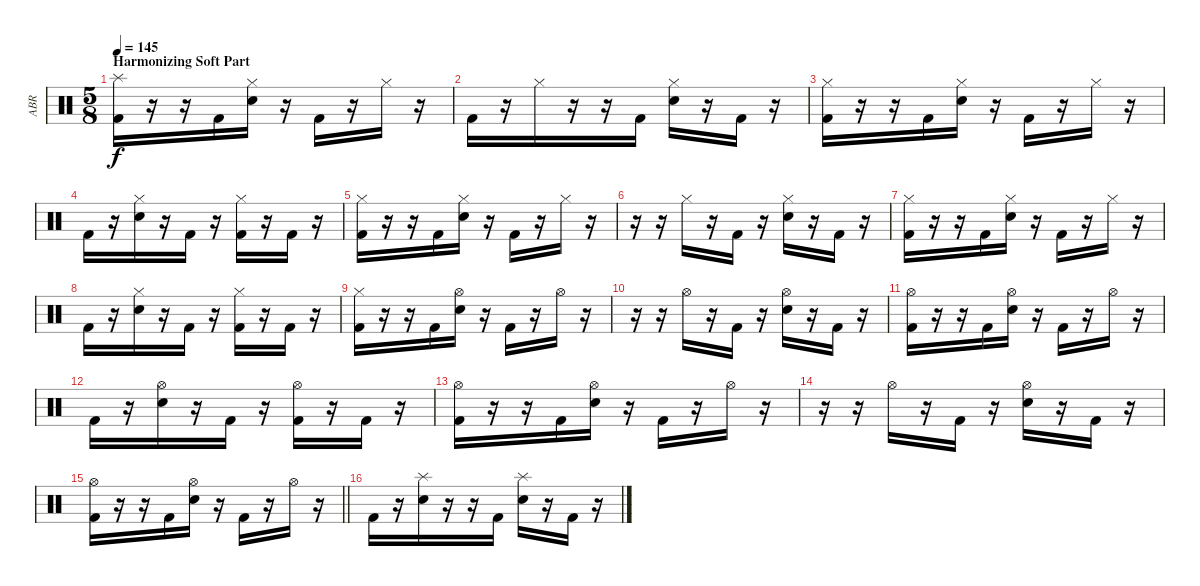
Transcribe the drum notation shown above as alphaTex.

\track ("ABR" "ABR") {instrument percussion}
\staff {score}
\articulation defaults
\ts (5 8)
\section ("" "Harmonizing Soft Part")
\tempo 145
\clef neutral
\ks c
("Splash (hit)" "Kick (hit) 2").16{dy f} r.16 r.16 "Kick (hit) 2".16 ("Hi-Hat (closed)" "Snare (hit) 2").16 r.16 "Kick (hit) 2".16 r.16 "Hi-Hat (closed)".16 r.16 |
"Kick (hit) 2".16 r.16 "Hi-Hat (closed)".16 r.16 r.16 "Kick (hit) 2".16 ("Hi-Hat (closed)" "Snare (hit) 2").16 r.16 "Kick (hit) 2".16 r.16 |
("Hi-Hat (closed)" "Kick (hit) 2").16 r.16 r.16 "Kick (hit) 2".16 ("Hi-Hat (closed)" "Snare (hit) 2").16 r.16 "Kick (hit) 2".16 r.16 "Hi-Hat (closed)".16 r.16 |
"Kick (hit) 2".16 r.16 ("Hi-Hat (closed)" "Snare (hit) 2").16 r.16 "Kick (hit) 2".16 r.16 ("Hi-Hat (closed)" "Kick (hit) 2").16 r.16 "Kick (hit) 2".16 r.16 |
("Hi-Hat (closed)" "Kick (hit) 2").16 r.16 r.16 "Kick (hit) 2".16 ("Hi-Hat (closed)" "Snare (hit) 2").16 r.16 "Kick (hit) 2".16 r.16 "Hi-Hat (closed)".16 r.16 |
r.16 r.16 "Hi-Hat (closed)".16 r.16 "Kick (hit) 2".16 r.16 ("Hi-Hat (closed)" "Snare (hit) 2").16 r.16 "Kick (hit) 2".16 r.16 |
("Hi-Hat (closed)" "Kick (hit) 2").16 r.16 r.16 "Kick (hit) 2".16 ("Hi-Hat (closed)" "Snare (hit) 2").16 r.16 "Kick (hit) 2".16 r.16 "Hi-Hat (closed)".16 r.16 |
"Kick (hit) 2".16 r.16 ("Hi-Hat (closed)" "Snare (hit) 2").16 r.16 "Kick (hit) 2".16 r.16 ("Hi-Hat (closed)" "Kick (hit) 2").16 r.16 "Kick (hit) 2".16 r.16 |
("Hi-Hat (closed)" "Kick (hit) 2").16 r.16 r.16 "Kick (hit) 2".16 ("Hi-Hat (open)" "Snare (hit) 2").16 r.16 "Kick (hit) 2".16 r.16 "Hi-Hat (open)".16 r.16 |
r.16 r.16 "Hi-Hat (open)".16 r.16 "Kick (hit) 2".16 r.16 ("Hi-Hat (open)" "Snare (hit) 2").16 r.16 "Kick (hit) 2".16 r.16 |
("Hi-Hat (open)" "Kick (hit) 2").16 r.16 r.16 "Kick (hit) 2".16 ("Hi-Hat (open)" "Snare (hit) 2").16 r.16 "Kick (hit) 2".16 r.16 "Hi-Hat (open)".16 r.16 |
"Kick (hit) 2".16 r.16 ("Hi-Hat (open)" "Snare (hit) 2").16 r.16 "Kick (hit) 2".16 r.16 ("Hi-Hat (open)" "Kick (hit) 2").16 r.16 "Kick (hit) 2".16 r.16 |
("Hi-Hat (open)" "Kick (hit) 2").16 r.16 r.16 "Kick (hit) 2".16 ("Hi-Hat (open)" "Snare (hit) 2").16 r.16 "Kick (hit) 2".16 r.16 "Hi-Hat (open)".16 r.16 |
r.16 r.16 "Hi-Hat (open)".16 r.16 "Kick (hit) 2".16 r.16 ("Hi-Hat (open)" "Snare (hit) 2").16 r.16 "Kick (hit) 2".16 r.16 |
\barLineRight lightlight
("Hi-Hat (open)" "Kick (hit) 2").16 r.16 r.16 "Kick (hit) 2".16 ("Hi-Hat (open)" "Snare (hit) 2").16 r.16 "Kick (hit) 2".16 r.16 "Hi-Hat (open)".16 r.16 |
\section ("" "")
"Kick (hit) 2".16 r.16 ("Splash (hit)" "Snare (hit) 2").16 r.16 r.16 "Kick (hit) 2".16 ("Splash (hit)" "Snare (hit) 2").16 r.16 "Kick (hit) 2".16 r.16
